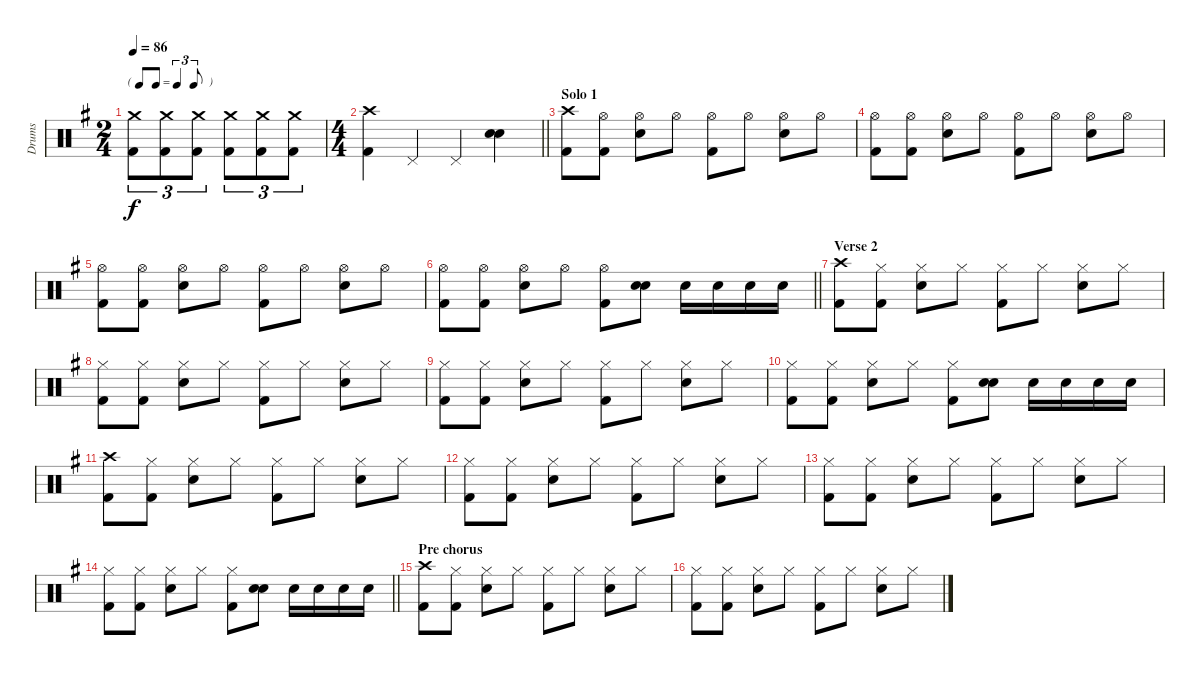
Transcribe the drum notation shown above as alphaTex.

\track ("Drums" "Drums") {instrument percussion}
\staff {score}
\articulation defaults
\ts (2 4)
\tf triplet8th
\tempo 86
\clef neutral
\ks g
("Crash medium (hit)" "Kick (hit) 2").8{tu (3 2) dy f} ("Crash medium (hit)" "Kick (hit) 2").8{tu (3 2)} ("Crash medium (hit)" "Kick (hit) 2").8{tu (3 2)} ("Crash medium (hit)" "Kick (hit) 2").8{tu (3 2)} ("Crash medium (hit)" "Kick (hit) 2").8{tu (3 2)} ("Crash medium (hit)" "Kick (hit) 2").8{tu (3 2)} |
\ts (4 4)
\barLineRight lightlight
("Crash high (hit)" "Kick (hit) 2").4 "Pedal Hi-Hat (hit)".4 "Pedal Hi-Hat (hit)".4 ("Snare (hit) 2" "Snare (hit) 2").4 |
\section ("" "Solo 1")
("Crash high (hit)" "Kick (hit) 2").8 ("Hi-Hat (open)" "Kick (hit) 2").8 ("Hi-Hat (open)" "Snare (hit) 2").8 "Hi-Hat (open)".8 ("Hi-Hat (open)" "Kick (hit) 2").8 "Hi-Hat (open)".8 ("Hi-Hat (open)" "Snare (hit) 2").8 "Hi-Hat (open)".8 |
("Hi-Hat (open)" "Kick (hit) 2").8 ("Hi-Hat (open)" "Kick (hit) 2").8 ("Hi-Hat (open)" "Snare (hit) 2").8 "Hi-Hat (open)".8 ("Hi-Hat (open)" "Kick (hit) 2").8 "Hi-Hat (open)".8 ("Hi-Hat (open)" "Snare (hit) 2").8 "Hi-Hat (open)".8 |
("Hi-Hat (open)" "Kick (hit) 2").8 ("Hi-Hat (open)" "Kick (hit) 2").8 ("Hi-Hat (open)" "Snare (hit) 2").8 "Hi-Hat (open)".8 ("Hi-Hat (open)" "Kick (hit) 2").8 "Hi-Hat (open)".8 ("Hi-Hat (open)" "Snare (hit) 2").8 "Hi-Hat (open)".8 |
\barLineRight lightlight
("Hi-Hat (open)" "Kick (hit) 2").8 ("Hi-Hat (open)" "Kick (hit) 2").8 ("Hi-Hat (open)" "Snare (hit) 2").8 "Hi-Hat (open)".8 ("Hi-Hat (open)" "Kick (hit) 2").8 ("Snare (hit) 2" "Snare (hit) 2").8 "Snare (hit) 2".16 "Snare (hit) 2".16 "Snare (hit) 2".16 "Snare (hit) 2".16 |
\section ("" "Verse 2")
("Crash high (hit)" "Kick (hit) 2").8 ("Hi-Hat (closed)" "Kick (hit) 2").8 ("Hi-Hat (closed)" "Snare (hit) 2").8 "Hi-Hat (closed)".8 ("Hi-Hat (closed)" "Kick (hit) 2").8 "Hi-Hat (closed)".8 ("Hi-Hat (closed)" "Snare (hit) 2").8 "Hi-Hat (closed)".8 |
("Hi-Hat (closed)" "Kick (hit) 2").8 ("Hi-Hat (closed)" "Kick (hit) 2").8 ("Hi-Hat (closed)" "Snare (hit) 2").8 "Hi-Hat (closed)".8 ("Hi-Hat (closed)" "Kick (hit) 2").8 "Hi-Hat (closed)".8 ("Hi-Hat (closed)" "Snare (hit) 2").8 "Hi-Hat (closed)".8 |
("Hi-Hat (closed)" "Kick (hit) 2").8 ("Hi-Hat (closed)" "Kick (hit) 2").8 ("Hi-Hat (closed)" "Snare (hit) 2").8 "Hi-Hat (closed)".8 ("Hi-Hat (closed)" "Kick (hit) 2").8 "Hi-Hat (closed)".8 ("Hi-Hat (closed)" "Snare (hit) 2").8 "Hi-Hat (closed)".8 |
("Hi-Hat (closed)" "Kick (hit) 2").8 ("Hi-Hat (closed)" "Kick (hit) 2").8 ("Hi-Hat (closed)" "Snare (hit) 2").8 "Hi-Hat (closed)".8 ("Hi-Hat (closed)" "Kick (hit) 2").8 ("Snare (hit) 2" "Snare (hit) 2").8 "Snare (hit) 2".16 "Snare (hit) 2".16 "Snare (hit) 2".16 "Snare (hit) 2".16 |
("Crash high (hit)" "Kick (hit) 2").8 ("Hi-Hat (closed)" "Kick (hit) 2").8 ("Hi-Hat (closed)" "Snare (hit) 2").8 "Hi-Hat (closed)".8 ("Hi-Hat (closed)" "Kick (hit) 2").8 "Hi-Hat (closed)".8 ("Hi-Hat (closed)" "Snare (hit) 2").8 "Hi-Hat (closed)".8 |
("Hi-Hat (closed)" "Kick (hit) 2").8 ("Hi-Hat (closed)" "Kick (hit) 2").8 ("Hi-Hat (closed)" "Snare (hit) 2").8 "Hi-Hat (closed)".8 ("Hi-Hat (closed)" "Kick (hit) 2").8 "Hi-Hat (closed)".8 ("Hi-Hat (closed)" "Snare (hit) 2").8 "Hi-Hat (closed)".8 |
("Hi-Hat (closed)" "Kick (hit) 2").8 ("Hi-Hat (closed)" "Kick (hit) 2").8 ("Hi-Hat (closed)" "Snare (hit) 2").8 "Hi-Hat (closed)".8 ("Hi-Hat (closed)" "Kick (hit) 2").8 "Hi-Hat (closed)".8 ("Hi-Hat (closed)" "Snare (hit) 2").8 "Hi-Hat (closed)".8 |
\barLineRight lightlight
("Hi-Hat (closed)" "Kick (hit) 2").8 ("Hi-Hat (closed)" "Kick (hit) 2").8 ("Hi-Hat (closed)" "Snare (hit) 2").8 "Hi-Hat (closed)".8 ("Hi-Hat (closed)" "Kick (hit) 2").8 ("Snare (hit) 2" "Snare (hit) 2").8 "Snare (hit) 2".16 "Snare (hit) 2".16 "Snare (hit) 2".16 "Snare (hit) 2".16 |
\section ("" "Pre chorus")
("Crash high (hit)" "Kick (hit) 2").8 ("Hi-Hat (closed)" "Kick (hit) 2").8 ("Hi-Hat (closed)" "Snare (hit) 2").8 "Hi-Hat (closed)".8 ("Hi-Hat (closed)" "Kick (hit) 2").8 "Hi-Hat (closed)".8 ("Hi-Hat (closed)" "Snare (hit) 2").8 "Hi-Hat (closed)".8 |
("Hi-Hat (closed)" "Kick (hit) 2").8 ("Hi-Hat (closed)" "Kick (hit) 2").8 ("Hi-Hat (closed)" "Snare (hit) 2").8 "Hi-Hat (closed)".8 ("Hi-Hat (closed)" "Kick (hit) 2").8 "Hi-Hat (closed)".8 ("Hi-Hat (closed)" "Snare (hit) 2").8 "Hi-Hat (closed)".8
